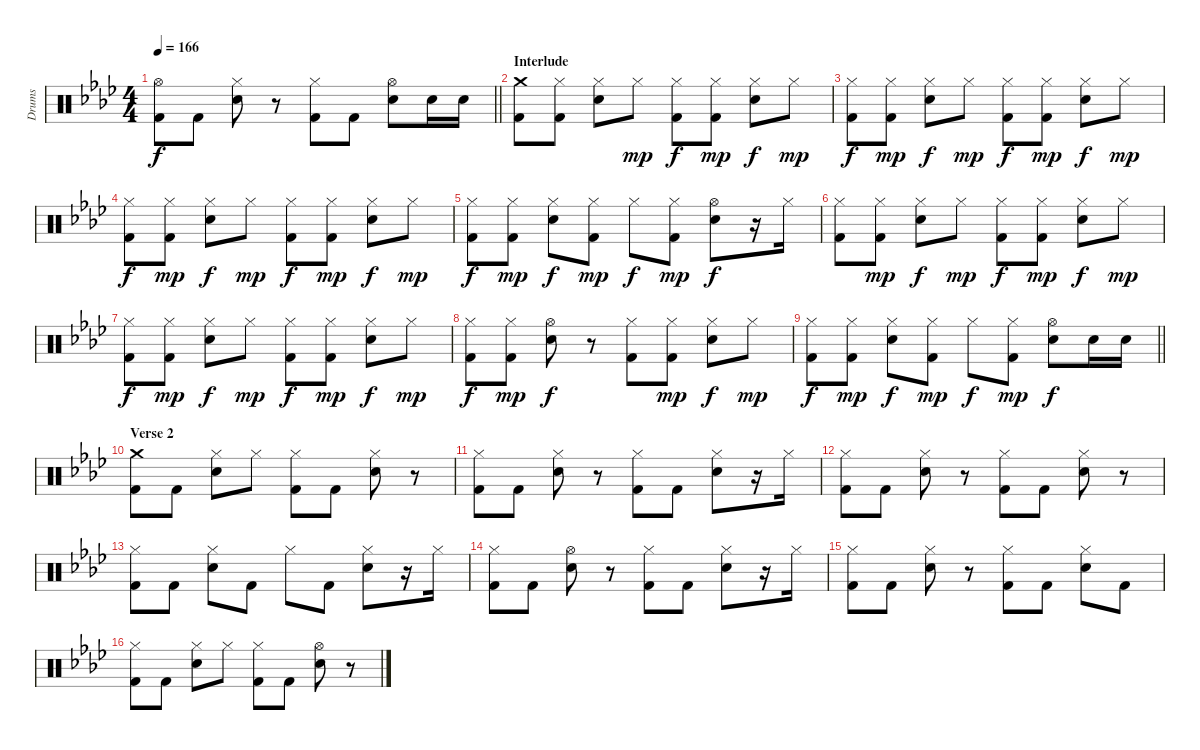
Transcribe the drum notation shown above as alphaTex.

\track ("Drums" "Drums") {instrument percussion}
\staff {score}
\articulation defaults
\ts (4 4)
\tempo 166
\clef neutral
\barLineRight lightlight
\ks ab
("Hi-Hat (open)" "Kick (hit) 2").8{dy f} "Kick (hit) 2".8 ("Hi-Hat (closed)" "Electric Snare (hit)").8 r.8 ("Hi-Hat (closed)" "Kick (hit) 2").8 "Kick (hit) 2".8 ("Hi-Hat (open)" "Electric Snare (hit)").8 "Electric Snare (hit)".16 "Electric Snare (hit)".16 |
\section ("" "Interlude")
("Crash medium (hit)" "Kick (hit) 2").8 ("Hi-Hat (closed)" "Kick (hit) 2").8 ("Hi-Hat (closed)" "Electric Snare (hit)").8 "Hi-Hat (closed)".8{dy mp} ("Hi-Hat (closed)" "Kick (hit) 2").8{dy f} ("Hi-Hat (closed)" "Kick (hit) 2").8{dy mp} ("Hi-Hat (closed)" "Electric Snare (hit)").8{dy f} "Hi-Hat (closed)".8{dy mp} |
("Hi-Hat (closed)" "Kick (hit) 2").8{dy f} ("Hi-Hat (closed)" "Kick (hit) 2").8{dy mp} ("Hi-Hat (closed)" "Electric Snare (hit)").8{dy f} "Hi-Hat (closed)".8{dy mp} ("Hi-Hat (closed)" "Kick (hit) 2").8{dy f} ("Hi-Hat (closed)" "Kick (hit) 2").8{dy mp} ("Hi-Hat (closed)" "Electric Snare (hit)").8{dy f} "Hi-Hat (closed)".8{dy mp} |
("Hi-Hat (closed)" "Kick (hit) 2").8{dy f} ("Hi-Hat (closed)" "Kick (hit) 2").8{dy mp} ("Hi-Hat (closed)" "Electric Snare (hit)").8{dy f} "Hi-Hat (closed)".8{dy mp} ("Hi-Hat (closed)" "Kick (hit) 2").8{dy f} ("Hi-Hat (closed)" "Kick (hit) 2").8{dy mp} ("Hi-Hat (closed)" "Electric Snare (hit)").8{dy f} "Hi-Hat (closed)".8{dy mp} |
("Hi-Hat (closed)" "Kick (hit) 2").8{dy f} ("Hi-Hat (closed)" "Kick (hit) 2").8{dy mp} ("Hi-Hat (closed)" "Electric Snare (hit)").8{dy f} ("Hi-Hat (closed)" "Kick (hit) 2").8{dy mp} "Hi-Hat (closed)".8{dy f} ("Hi-Hat (closed)" "Kick (hit) 2").8{dy mp} ("Hi-Hat (open)" "Electric Snare (hit)").8{dy f} r.16 "Hi-Hat (closed)".16 |
("Hi-Hat (closed)" "Kick (hit) 2").8 ("Hi-Hat (closed)" "Kick (hit) 2").8{dy mp} ("Hi-Hat (closed)" "Electric Snare (hit)").8{dy f} "Hi-Hat (closed)".8{dy mp} ("Hi-Hat (closed)" "Kick (hit) 2").8{dy f} ("Hi-Hat (closed)" "Kick (hit) 2").8{dy mp} ("Hi-Hat (closed)" "Electric Snare (hit)").8{dy f} "Hi-Hat (closed)".8{dy mp} |
("Hi-Hat (closed)" "Kick (hit) 2").8{dy f} ("Hi-Hat (closed)" "Kick (hit) 2").8{dy mp} ("Hi-Hat (closed)" "Electric Snare (hit)").8{dy f} "Hi-Hat (closed)".8{dy mp} ("Hi-Hat (closed)" "Kick (hit) 2").8{dy f} ("Hi-Hat (closed)" "Kick (hit) 2").8{dy mp} ("Hi-Hat (closed)" "Electric Snare (hit)").8{dy f} "Hi-Hat (closed)".8{dy mp} |
("Hi-Hat (closed)" "Kick (hit) 2").8{dy f} ("Hi-Hat (closed)" "Kick (hit) 2").8{dy mp} ("Hi-Hat (open)" "Electric Snare (hit)").8{dy f} r.8 ("Hi-Hat (closed)" "Kick (hit) 2").8 ("Hi-Hat (closed)" "Kick (hit) 2").8{dy mp} ("Hi-Hat (closed)" "Electric Snare (hit)").8{dy f} "Hi-Hat (closed)".8{dy mp} |
\barLineRight lightlight
("Hi-Hat (closed)" "Kick (hit) 2").8{dy f} ("Hi-Hat (closed)" "Kick (hit) 2").8{dy mp} ("Hi-Hat (closed)" "Electric Snare (hit)").8{dy f} ("Hi-Hat (closed)" "Kick (hit) 2").8{dy mp} "Hi-Hat (closed)".8{dy f} ("Hi-Hat (closed)" "Kick (hit) 2").8{dy mp} ("Hi-Hat (open)" "Electric Snare (hit)").8{dy f} "Electric Snare (hit)".16 "Electric Snare (hit)".16 |
\section ("" "Verse 2")
("Crash medium (hit)" "Kick (hit) 2").8 "Kick (hit) 2".8 ("Hi-Hat (closed)" "Electric Snare (hit)").8 "Hi-Hat (closed)".8 ("Hi-Hat (closed)" "Kick (hit) 2").8 "Kick (hit) 2".8 ("Hi-Hat (closed)" "Electric Snare (hit)").8 r.8 |
("Hi-Hat (closed)" "Kick (hit) 2").8 "Kick (hit) 2".8 ("Hi-Hat (closed)" "Electric Snare (hit)").8 r.8 ("Hi-Hat (closed)" "Kick (hit) 2").8 "Kick (hit) 2".8 ("Hi-Hat (closed)" "Electric Snare (hit)").8 r.16 "Hi-Hat (closed)".16 |
("Hi-Hat (closed)" "Kick (hit) 2").8 "Kick (hit) 2".8 ("Hi-Hat (closed)" "Electric Snare (hit)").8 r.8 ("Hi-Hat (closed)" "Kick (hit) 2").8 "Kick (hit) 2".8 ("Hi-Hat (closed)" "Electric Snare (hit)").8 r.8 |
("Hi-Hat (closed)" "Kick (hit) 2").8 "Kick (hit) 2".8 ("Hi-Hat (closed)" "Electric Snare (hit)").8 "Kick (hit) 2".8 "Hi-Hat (closed)".8 "Kick (hit) 2".8 ("Hi-Hat (closed)" "Electric Snare (hit)").8 r.16 "Hi-Hat (closed)".16 |
("Hi-Hat (closed)" "Kick (hit) 2").8 "Kick (hit) 2".8 ("Hi-Hat (open)" "Electric Snare (hit)").8 r.8 ("Hi-Hat (closed)" "Kick (hit) 2").8 "Kick (hit) 2".8 ("Hi-Hat (closed)" "Electric Snare (hit)").8 r.16 "Hi-Hat (closed)".16 |
("Hi-Hat (closed)" "Kick (hit) 2").8 "Kick (hit) 2".8 ("Hi-Hat (closed)" "Electric Snare (hit)").8 r.8 ("Hi-Hat (closed)" "Kick (hit) 2").8 "Kick (hit) 2".8 ("Hi-Hat (closed)" "Electric Snare (hit)").8 "Kick (hit) 2".8 |
("Hi-Hat (closed)" "Kick (hit) 2").8 "Kick (hit) 2".8 ("Hi-Hat (closed)" "Electric Snare (hit)").8 "Hi-Hat (closed)".8 ("Hi-Hat (closed)" "Kick (hit) 2").8 "Kick (hit) 2".8 ("Hi-Hat (open)" "Electric Snare (hit)").8 r.8
